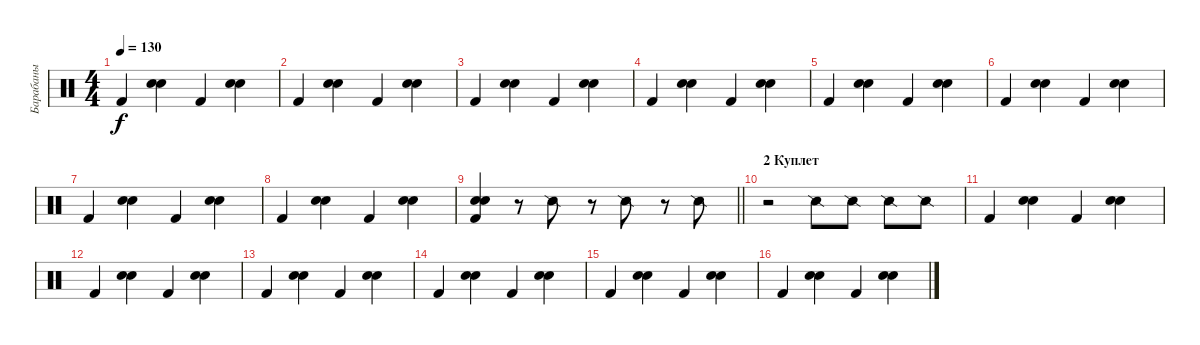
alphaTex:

\track ("Барабаны" "Барабаны") {instrument percussion}
\staff {score}
\articulation defaults
\ts (4 4)
\tempo 130
\clef neutral
\ks c "Kick (hit) 2".4{dy f}
("Snare (hit) 2" "Electric Snare (hit)").4 "Kick (hit) 2".4 ("Snare (hit) 2" "Electric Snare (hit)").4 |
"Kick (hit) 2".4 ("Snare (hit) 2" "Electric Snare (hit)").4 "Kick (hit) 2".4 ("Snare (hit) 2" "Electric Snare (hit)").4 |
"Kick (hit) 2".4 ("Snare (hit) 2" "Electric Snare (hit)").4 "Kick (hit) 2".4 ("Snare (hit) 2" "Electric Snare (hit)").4 |
"Kick (hit) 2".4 ("Snare (hit) 2" "Electric Snare (hit)").4 "Kick (hit) 2".4 ("Snare (hit) 2" "Electric Snare (hit)").4 |
"Kick (hit) 2".4 ("Snare (hit) 2" "Electric Snare (hit)").4 "Kick (hit) 2".4 ("Snare (hit) 2" "Electric Snare (hit)").4 |
"Kick (hit) 2".4 ("Snare (hit) 2" "Electric Snare (hit)").4 "Kick (hit) 2".4 ("Snare (hit) 2" "Electric Snare (hit)").4 |
"Kick (hit) 2".4 ("Snare (hit) 2" "Electric Snare (hit)").4 "Kick (hit) 2".4 ("Snare (hit) 2" "Electric Snare (hit)").4 |
"Kick (hit) 2".4 ("Snare (hit) 2" "Electric Snare (hit)").4 "Kick (hit) 2".4 ("Snare (hit) 2" "Electric Snare (hit)").4 |
\barLineRight lightlight
("Electric Snare (hit)" "Kick (hit) 2" "Snare (hit) 2").4 r.8 "Snare (side stick) 2".8 r.8 "Snare (side stick) 2".8 r.8 "Snare (side stick) 2".8 |
\section ("" "2 Куплет")
r.2 "Snare (side stick) 2".8 "Snare (side stick) 2".8 "Snare (side stick) 2".8 "Snare (side stick) 2".8 |
"Kick (hit) 2".4 ("Snare (hit) 2" "Electric Snare (hit)").4 "Kick (hit) 2".4 ("Snare (hit) 2" "Electric Snare (hit)").4 |
"Kick (hit) 2".4 ("Snare (hit) 2" "Electric Snare (hit)").4 "Kick (hit) 2".4 ("Snare (hit) 2" "Electric Snare (hit)").4 |
"Kick (hit) 2".4 ("Snare (hit) 2" "Electric Snare (hit)").4 "Kick (hit) 2".4 ("Snare (hit) 2" "Electric Snare (hit)").4 |
"Kick (hit) 2".4 ("Snare (hit) 2" "Electric Snare (hit)").4 "Kick (hit) 2".4 ("Snare (hit) 2" "Electric Snare (hit)").4 |
"Kick (hit) 2".4 ("Snare (hit) 2" "Electric Snare (hit)").4 "Kick (hit) 2".4 ("Snare (hit) 2" "Electric Snare (hit)").4 |
"Kick (hit) 2".4 ("Snare (hit) 2" "Electric Snare (hit)").4 "Kick (hit) 2".4 ("Snare (hit) 2" "Electric Snare (hit)").4
